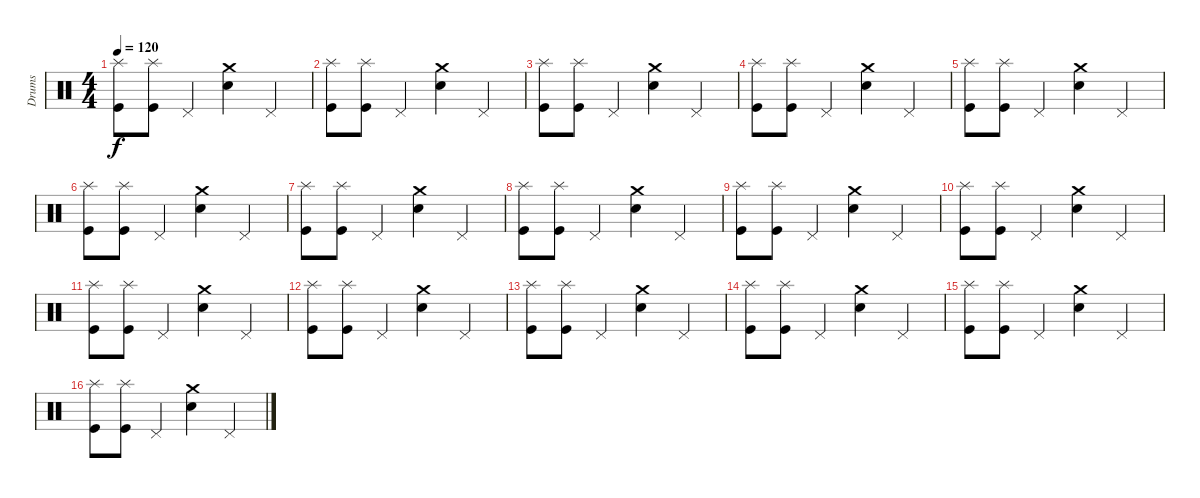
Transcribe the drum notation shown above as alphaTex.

\track ("Drums" "Drums") {instrument percussion}
\staff {score}
\articulation defaults
\ts (4 4)
\tempo 120
\clef neutral
\ks c
("Splash (hit)" "Kick (hit)").8{dy f} ("Splash (hit)" "Kick (hit)").8 "Pedal Hi-Hat (hit)".4 ("Crash medium (hit)" "Snare (hit) 2").4 "Pedal Hi-Hat (hit)".4 |
("Splash (hit)" "Kick (hit)").8 ("Splash (hit)" "Kick (hit)").8 "Pedal Hi-Hat (hit)".4 ("Crash medium (hit)" "Snare (hit) 2").4 "Pedal Hi-Hat (hit)".4 |
("Splash (hit)" "Kick (hit)").8 ("Splash (hit)" "Kick (hit)").8 "Pedal Hi-Hat (hit)".4 ("Crash medium (hit)" "Snare (hit) 2").4 "Pedal Hi-Hat (hit)".4 |
("Splash (hit)" "Kick (hit)").8 ("Splash (hit)" "Kick (hit)").8 "Pedal Hi-Hat (hit)".4 ("Crash medium (hit)" "Snare (hit) 2").4 "Pedal Hi-Hat (hit)".4 |
("Splash (hit)" "Kick (hit)").8 ("Splash (hit)" "Kick (hit)").8 "Pedal Hi-Hat (hit)".4 ("Crash medium (hit)" "Snare (hit) 2").4 "Pedal Hi-Hat (hit)".4 |
("Splash (hit)" "Kick (hit)").8 ("Splash (hit)" "Kick (hit)").8 "Pedal Hi-Hat (hit)".4 ("Crash medium (hit)" "Snare (hit) 2").4 "Pedal Hi-Hat (hit)".4 |
("Splash (hit)" "Kick (hit)").8 ("Splash (hit)" "Kick (hit)").8 "Pedal Hi-Hat (hit)".4 ("Crash medium (hit)" "Snare (hit) 2").4 "Pedal Hi-Hat (hit)".4 |
("Splash (hit)" "Kick (hit)").8 ("Splash (hit)" "Kick (hit)").8 "Pedal Hi-Hat (hit)".4 ("Crash medium (hit)" "Snare (hit) 2").4 "Pedal Hi-Hat (hit)".4 |
("Splash (hit)" "Kick (hit)").8 ("Splash (hit)" "Kick (hit)").8 "Pedal Hi-Hat (hit)".4 ("Crash medium (hit)" "Snare (hit) 2").4 "Pedal Hi-Hat (hit)".4 |
("Splash (hit)" "Kick (hit)").8 ("Splash (hit)" "Kick (hit)").8 "Pedal Hi-Hat (hit)".4 ("Crash medium (hit)" "Snare (hit) 2").4 "Pedal Hi-Hat (hit)".4 |
("Splash (hit)" "Kick (hit)").8 ("Splash (hit)" "Kick (hit)").8 "Pedal Hi-Hat (hit)".4 ("Crash medium (hit)" "Snare (hit) 2").4 "Pedal Hi-Hat (hit)".4 |
("Splash (hit)" "Kick (hit)").8 ("Splash (hit)" "Kick (hit)").8 "Pedal Hi-Hat (hit)".4 ("Crash medium (hit)" "Snare (hit) 2").4 "Pedal Hi-Hat (hit)".4 |
("Splash (hit)" "Kick (hit)").8 ("Splash (hit)" "Kick (hit)").8 "Pedal Hi-Hat (hit)".4 ("Crash medium (hit)" "Snare (hit) 2").4 "Pedal Hi-Hat (hit)".4 |
("Splash (hit)" "Kick (hit)").8 ("Splash (hit)" "Kick (hit)").8 "Pedal Hi-Hat (hit)".4 ("Crash medium (hit)" "Snare (hit) 2").4 "Pedal Hi-Hat (hit)".4 |
("Splash (hit)" "Kick (hit)").8 ("Splash (hit)" "Kick (hit)").8 "Pedal Hi-Hat (hit)".4 ("Crash medium (hit)" "Snare (hit) 2").4 "Pedal Hi-Hat (hit)".4 |
("Splash (hit)" "Kick (hit)").8 ("Splash (hit)" "Kick (hit)").8 "Pedal Hi-Hat (hit)".4 ("Crash medium (hit)" "Snare (hit) 2").4 "Pedal Hi-Hat (hit)".4
